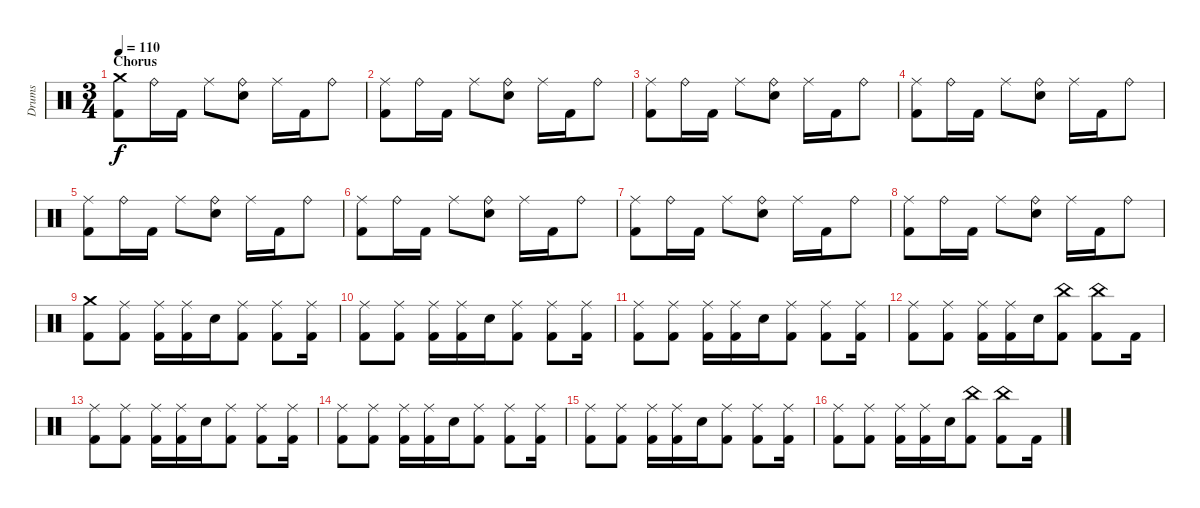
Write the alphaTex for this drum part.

\track ("Drums" "Drums") {instrument percussion}
\staff {score}
\articulation defaults
\ts (3 4)
\section ("" "Chorus")
\tempo 110
\clef neutral
\ks c
("Kick (hit) 2" "Crash medium (hit)").8{dy f} "Ride (bell)".16 "Kick (hit) 2".16 "Ride (middle)".8 ("Ride (bell)" "Electric Snare (hit)").8 "Ride (middle)".16 "Kick (hit) 2".16 "Ride (bell)".8 |
("Kick (hit) 2" "Ride (middle)").8 "Ride (bell)".16 "Kick (hit) 2".16 "Ride (middle)".8 ("Ride (bell)" "Electric Snare (hit)").8 "Ride (middle)".16 "Kick (hit) 2".16 "Ride (bell)".8 |
("Kick (hit) 2" "Ride (middle)").8 "Ride (bell)".16 "Kick (hit) 2".16 "Ride (middle)".8 ("Ride (bell)" "Electric Snare (hit)").8 "Ride (middle)".16 "Kick (hit) 2".16 "Ride (bell)".8 |
("Kick (hit) 2" "Ride (middle)").8 "Ride (bell)".16 "Kick (hit) 2".16 "Ride (middle)".8 ("Ride (bell)" "Electric Snare (hit)").8 "Ride (middle)".16 "Kick (hit) 2".16 "Ride (bell)".8 |
("Kick (hit) 2" "Ride (middle)").8 "Ride (bell)".16 "Kick (hit) 2".16 "Ride (middle)".8 ("Ride (bell)" "Electric Snare (hit)").8 "Ride (middle)".16 "Kick (hit) 2".16 "Ride (bell)".8 |
("Kick (hit) 2" "Ride (middle)").8 "Ride (bell)".16 "Kick (hit) 2".16 "Ride (middle)".8 ("Ride (bell)" "Electric Snare (hit)").8 "Ride (middle)".16 "Kick (hit) 2".16 "Ride (bell)".8 |
("Kick (hit) 2" "Ride (middle)").8 "Ride (bell)".16 "Kick (hit) 2".16 "Ride (middle)".8 ("Ride (bell)" "Electric Snare (hit)").8 "Ride (middle)".16 "Kick (hit) 2".16 "Ride (bell)".8 |
("Kick (hit) 2" "Ride (middle)").8 "Ride (bell)".16 "Kick (hit) 2".16 "Ride (middle)".8 ("Ride (bell)" "Electric Snare (hit)").8 "Ride (middle)".16 "Kick (hit) 2".16 "Ride (bell)".8 |
("Kick (hit) 2" "Crash medium (hit)").8 ("Kick (hit) 2" "Ride (middle)").8 ("Kick (hit) 2" "Ride (middle)").16 ("Kick (hit) 2" "Ride (middle)").16 "Electric Snare (hit)".16 ("Kick (hit) 2" "Ride (middle)").8 ("Kick (hit) 2" "Ride (middle)").8 ("Kick (hit) 2" "Ride (middle)").16 |
("Kick (hit) 2" "Ride (middle)").8 ("Kick (hit) 2" "Ride (middle)").8 ("Kick (hit) 2" "Ride (middle)").16 ("Kick (hit) 2" "Ride (middle)").16 "Electric Snare (hit)".16 ("Kick (hit) 2" "Ride (middle)").8 ("Kick (hit) 2" "Ride (middle)").8 ("Kick (hit) 2" "Ride (middle)").16 |
("Kick (hit) 2" "Ride (middle)").8 ("Kick (hit) 2" "Ride (middle)").8 ("Kick (hit) 2" "Ride (middle)").16 ("Kick (hit) 2" "Ride (middle)").16 "Electric Snare (hit)".16 ("Kick (hit) 2" "Ride (middle)").8 ("Kick (hit) 2" "Ride (middle)").8 ("Kick (hit) 2" "Ride (middle)").16 |
("Kick (hit) 2" "Ride (middle)").8 ("Kick (hit) 2" "Ride (middle)").8 ("Kick (hit) 2" "Ride (middle)").16 ("Kick (hit) 2" "Ride (middle)").16 "Electric Snare (hit)".16 ("Kick (hit) 2" "China (hit)").8 ("Kick (hit) 2" "China (hit)").8 "Kick (hit) 2".16 |
("Kick (hit) 2" "Ride (middle)").8 ("Kick (hit) 2" "Ride (middle)").8 ("Kick (hit) 2" "Ride (middle)").16 ("Kick (hit) 2" "Ride (middle)").16 "Electric Snare (hit)".16 ("Kick (hit) 2" "Ride (middle)").8 ("Kick (hit) 2" "Ride (middle)").8 ("Kick (hit) 2" "Ride (middle)").16 |
("Kick (hit) 2" "Ride (middle)").8 ("Kick (hit) 2" "Ride (middle)").8 ("Kick (hit) 2" "Ride (middle)").16 ("Kick (hit) 2" "Ride (middle)").16 "Electric Snare (hit)".16 ("Kick (hit) 2" "Ride (middle)").8 ("Kick (hit) 2" "Ride (middle)").8 ("Kick (hit) 2" "Ride (middle)").16 |
("Kick (hit) 2" "Ride (middle)").8 ("Kick (hit) 2" "Ride (middle)").8 ("Kick (hit) 2" "Ride (middle)").16 ("Kick (hit) 2" "Ride (middle)").16 "Electric Snare (hit)".16 ("Kick (hit) 2" "Ride (middle)").8 ("Kick (hit) 2" "Ride (middle)").8 ("Kick (hit) 2" "Ride (middle)").16 |
("Kick (hit) 2" "Ride (middle)").8 ("Kick (hit) 2" "Ride (middle)").8 ("Kick (hit) 2" "Ride (middle)").16 ("Kick (hit) 2" "Ride (middle)").16 "Electric Snare (hit)".16 ("Kick (hit) 2" "China (hit)").8 ("Kick (hit) 2" "China (hit)").8 "Kick (hit) 2".16
